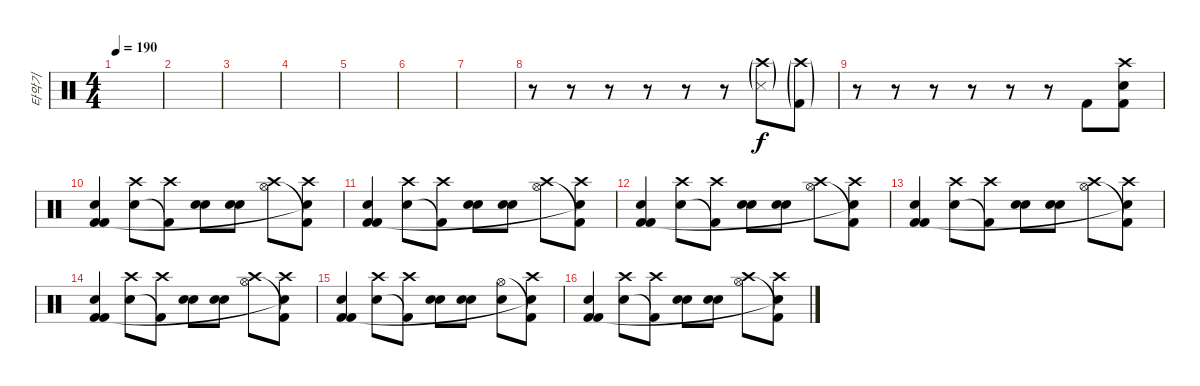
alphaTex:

\track ("타악기" "타악기") {instrument percussion}
\staff {score}
\articulation defaults
\ts (4 4)
\tempo 190
\clef neutral
\ks c
|
|
|
|
|
|
|
r.8 r.8 r.8 r.8 r.8 r.8 ("Snare (side stick) 3"{g} "Crash high (hit)"{g}).8 ("Crash high (hit)"{g} "Kick (hit) 2"{g}).8 |
r.8 r.8 r.8 r.8 r.8 r.8 "Kick (hit) 2".8{dy f} ("Snare (hit) 2" "Crash high (hit)" "Kick (hit) 2").8 |
("Kick (hit) 2" "Snare (hit) 2" "Kick (hit) 2").4 ("Crash high (hit)" "Snare (hit) 2").8 ("Crash high (hit)" "Kick (hit) 2"{t}).8 ("Snare (hit) 2" "Electric Snare (hit)").8 ("Snare (hit) 2" "Snare (hit) 2").8 ("Crash high (hit)" "Hi-Hat (open)").8 ("Crash high (hit)" "Kick (hit) 2"{t} "Snare (hit)"{t}).8 |
("Kick (hit) 2" "Snare (hit) 2" "Kick (hit) 2").4 ("Crash high (hit)" "Snare (hit) 2").8 ("Crash high (hit)" "Kick (hit) 2"{t}).8 ("Snare (hit) 2" "Electric Snare (hit)").8 ("Snare (hit) 2" "Snare (hit) 2").8 ("Crash high (hit)" "Hi-Hat (open)").8 ("Crash high (hit)" "Kick (hit) 2"{t} "Snare (hit)"{t}).8 |
("Kick (hit) 2" "Snare (hit) 2" "Kick (hit) 2").4 ("Crash high (hit)" "Snare (hit) 2").8 ("Crash high (hit)" "Kick (hit) 2"{t}).8 ("Snare (hit) 2" "Electric Snare (hit)").8 ("Snare (hit) 2" "Snare (hit) 2").8 ("Crash high (hit)" "Hi-Hat (open)").8 ("Crash high (hit)" "Kick (hit) 2"{t} "Snare (hit)"{t}).8 |
("Kick (hit) 2" "Snare (hit) 2" "Kick (hit) 2").4 ("Crash high (hit)" "Snare (hit) 2").8 ("Crash high (hit)" "Kick (hit) 2"{t}).8 ("Snare (hit) 2" "Electric Snare (hit)").8 ("Snare (hit) 2" "Snare (hit) 2").8 ("Crash high (hit)" "Hi-Hat (open)").8 ("Crash high (hit)" "Kick (hit) 2"{t} "Snare (hit)"{t}).8 |
("Kick (hit) 2" "Snare (hit) 2" "Kick (hit) 2").4 ("Crash high (hit)" "Snare (hit) 2").8 ("Crash high (hit)" "Kick (hit) 2"{t}).8 ("Snare (hit) 2" "Electric Snare (hit)").8 ("Snare (hit) 2" "Snare (hit) 2").8 ("Crash high (hit)" "Hi-Hat (open)").8 ("Crash high (hit)" "Kick (hit) 2"{t} "Snare (hit)"{t}).8 |
("Kick (hit) 2" "Snare (hit) 2" "Kick (hit) 2").4 ("Crash high (hit)" "Snare (hit) 2").8 ("Crash high (hit)" "Kick (hit) 2"{t}).8 ("Snare (hit) 2" "Electric Snare (hit)").8 ("Snare (hit) 2" "Snare (hit) 2").8 ("Snare (hit) 2" "Hi-Hat (open)").8 ("Crash high (hit)" "Kick (hit) 2"{t} "Snare (hit)"{t}).8 |
("Kick (hit) 2" "Snare (hit) 2" "Kick (hit) 2").4 ("Crash high (hit)" "Snare (hit) 2").8 ("Crash high (hit)" "Kick (hit) 2"{t}).8 ("Snare (hit) 2" "Electric Snare (hit)").8 ("Snare (hit) 2" "Snare (hit) 2").8 ("Crash high (hit)" "Hi-Hat (open)").8 ("Crash high (hit)" "Kick (hit) 2"{t} "Snare (hit)"{t}).8
